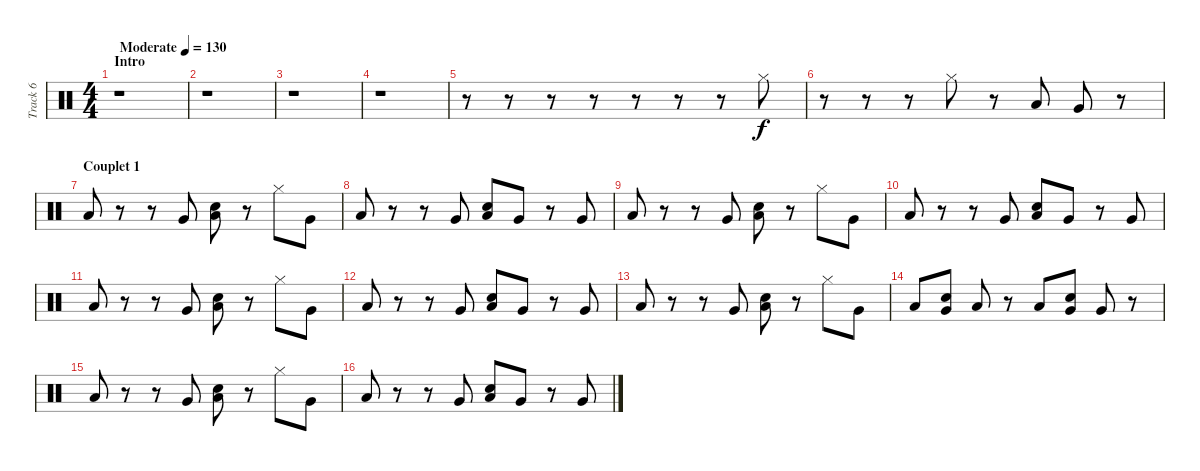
\track ("Track 6" "Track 6") {instrument percussion}
\staff {score}
\articulation defaults
\ts (4 4)
\section ("" "Intro")
\tempo (130 "Moderate")
\clef neutral
\ks c
r.1{dy f} |
r.1 |
r.1 |
r.1 |
r.8 r.8 r.8 r.8 r.8 r.8 r.8 "Hi-Hat (closed)".8 |
r.8 r.8 r.8 "Hi-Hat (closed)".8 r.8 "Low Tom (hit)".8 "Very Low Tom (hit)".8 r.8 |
\section ("" "Couplet 1")
"Low Floor Tom (hit)".8 r.8 r.8 "Very Low Tom (hit)".8 ("Low Tom (hit)" "Snare (hit) 2").8 r.8 "Hi-Hat (closed)".8 "Very Low Tom (hit)".8 |
"Low Floor Tom (hit)".8 r.8 r.8 "Very Low Tom (hit)".8 ("Low Tom (hit)" "Snare (hit) 2").8 "Very Low Tom (hit)".8 r.8 "Very Low Tom (hit)".8 |
"Low Floor Tom (hit)".8 r.8 r.8 "Very Low Tom (hit)".8 ("Low Tom (hit)" "Snare (hit) 2").8 r.8 "Hi-Hat (closed)".8 "Very Low Tom (hit)".8 |
"Low Floor Tom (hit)".8 r.8 r.8 "Very Low Tom (hit)".8 ("Low Tom (hit)" "Snare (hit) 2").8 "Very Low Tom (hit)".8 r.8 "Very Low Tom (hit)".8 |
"Low Floor Tom (hit)".8 r.8 r.8 "Very Low Tom (hit)".8 ("Low Tom (hit)" "Snare (hit) 2").8 r.8 "Hi-Hat (closed)".8 "Very Low Tom (hit)".8 |
"Low Floor Tom (hit)".8 r.8 r.8 "Very Low Tom (hit)".8 ("Low Tom (hit)" "Snare (hit) 2").8 "Very Low Tom (hit)".8 r.8 "Very Low Tom (hit)".8 |
"Low Floor Tom (hit)".8 r.8 r.8 "Very Low Tom (hit)".8 ("Low Tom (hit)" "Snare (hit) 2").8 r.8 "Hi-Hat (closed)".8 "Very Low Tom (hit)".8 |
"Low Floor Tom (hit)".8 ("Very Low Tom (hit)" "Snare (hit) 2").8 "Low Floor Tom (hit)".8 r.8 "Low Tom (hit)".8 ("Very Low Tom (hit)" "Snare (hit) 2").8 "Very Low Tom (hit)".8 r.8 |
"Low Floor Tom (hit)".8 r.8 r.8 "Very Low Tom (hit)".8 ("Low Tom (hit)" "Snare (hit) 2").8 r.8 "Hi-Hat (closed)".8 "Very Low Tom (hit)".8 |
"Low Floor Tom (hit)".8 r.8 r.8 "Very Low Tom (hit)".8 ("Low Tom (hit)" "Snare (hit) 2").8 "Very Low Tom (hit)".8 r.8 "Very Low Tom (hit)".8
